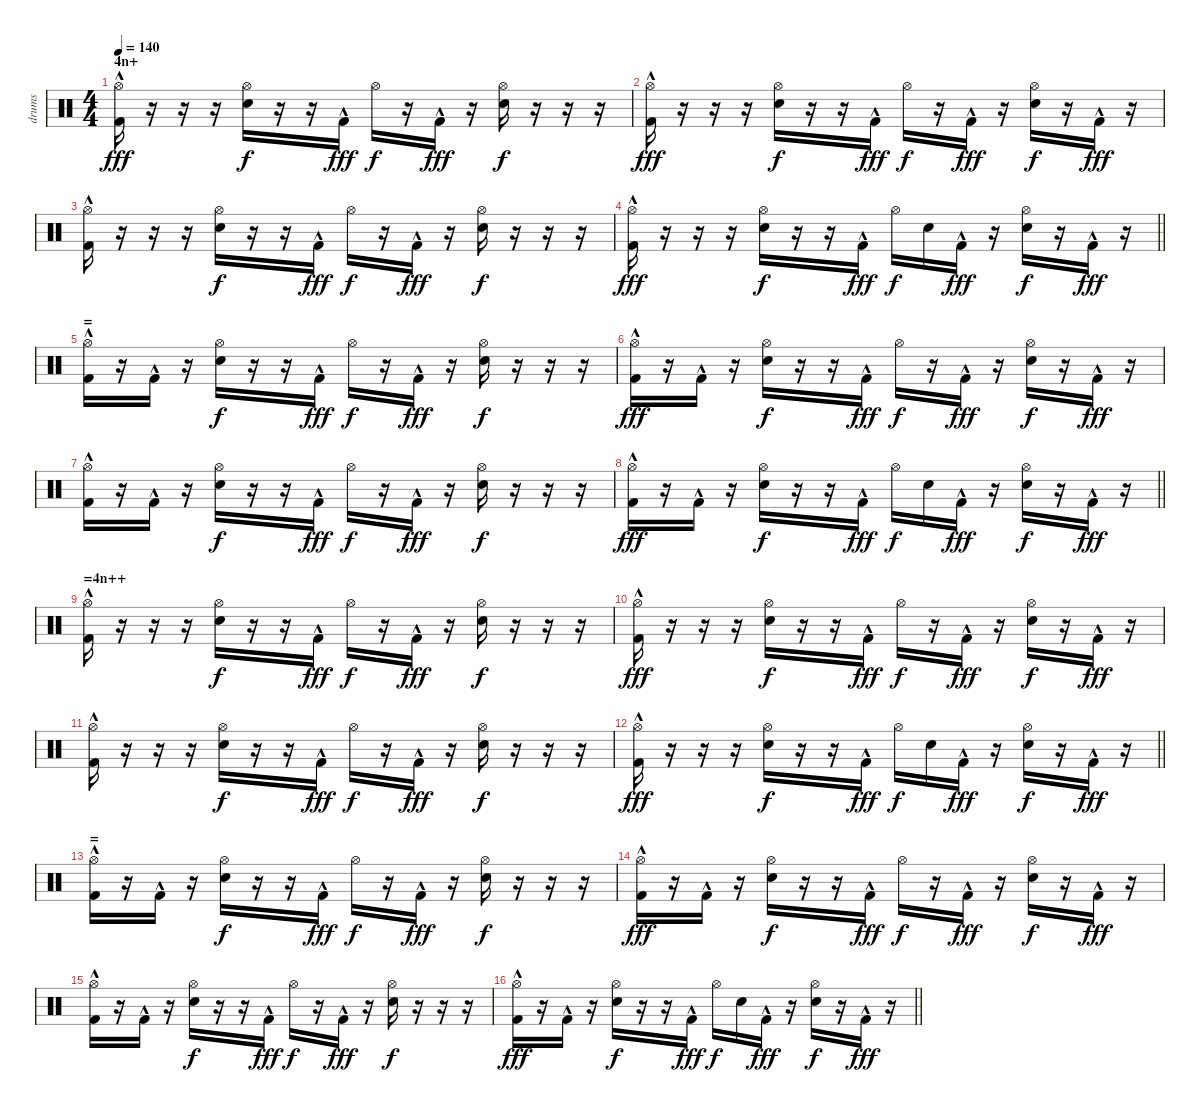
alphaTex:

\track ("drums" "drums") {instrument percussion}
\staff {score}
\articulation defaults
\ts (4 4)
\section ("" "4n+")
\tempo 140
\clef neutral
\ks c
("Kick (hit) 2"{hac} "Hi-Hat (open)").16{dy fff} r.16 r.16 r.16 ("Electric Snare (hit)" "Hi-Hat (open)").16{dy f} r.16 r.16 "Kick (hit) 2"{hac}.16{dy fff} "Hi-Hat (open)".16{dy f} r.16 "Kick (hit) 2"{hac}.16{dy fff} r.16 ("Electric Snare (hit)" "Hi-Hat (open)").16{dy f} r.16 r.16 r.16 |
("Kick (hit) 2"{hac} "Hi-Hat (open)").16{dy fff} r.16 r.16 r.16 ("Electric Snare (hit)" "Hi-Hat (open)").16{dy f} r.16 r.16 "Kick (hit) 2"{hac}.16{dy fff} "Hi-Hat (open)".16{dy f} r.16 "Kick (hit) 2"{hac}.16{dy fff} r.16 ("Electric Snare (hit)" "Hi-Hat (open)").16{dy f} r.16 "Kick (hit) 2"{hac}.16{dy fff} r.16 |
("Kick (hit) 2"{hac} "Hi-Hat (open)").16 r.16 r.16 r.16 ("Electric Snare (hit)" "Hi-Hat (open)").16{dy f} r.16 r.16 "Kick (hit) 2"{hac}.16{dy fff} "Hi-Hat (open)".16{dy f} r.16 "Kick (hit) 2"{hac}.16{dy fff} r.16 ("Electric Snare (hit)" "Hi-Hat (open)").16{dy f} r.16 r.16 r.16 |
\barLineRight lightlight
("Kick (hit) 2"{hac} "Hi-Hat (open)").16{dy fff} r.16 r.16 r.16 ("Electric Snare (hit)" "Hi-Hat (open)").16{dy f} r.16 r.16 "Kick (hit) 2"{hac}.16{dy fff} "Hi-Hat (open)".16{dy f} "Electric Snare (hit)".16 "Kick (hit) 2"{hac}.16{dy fff} r.16 ("Electric Snare (hit)" "Hi-Hat (open)").16{dy f} r.16 "Kick (hit) 2"{hac}.16{dy fff} r.16 |
\section ("" "=")
("Kick (hit) 2"{hac} "Hi-Hat (open)").16 r.16 "Kick (hit) 2"{hac}.16 r.16 ("Electric Snare (hit)" "Hi-Hat (open)").16{dy f} r.16 r.16 "Kick (hit) 2"{hac}.16{dy fff} "Hi-Hat (open)".16{dy f} r.16 "Kick (hit) 2"{hac}.16{dy fff} r.16 ("Electric Snare (hit)" "Hi-Hat (open)").16{dy f} r.16 r.16 r.16 |
("Kick (hit) 2"{hac} "Hi-Hat (open)").16{dy fff} r.16 "Kick (hit) 2"{hac}.16 r.16 ("Electric Snare (hit)" "Hi-Hat (open)").16{dy f} r.16 r.16 "Kick (hit) 2"{hac}.16{dy fff} "Hi-Hat (open)".16{dy f} r.16 "Kick (hit) 2"{hac}.16{dy fff} r.16 ("Electric Snare (hit)" "Hi-Hat (open)").16{dy f} r.16 "Kick (hit) 2"{hac}.16{dy fff} r.16 |
("Kick (hit) 2"{hac} "Hi-Hat (open)").16 r.16 "Kick (hit) 2"{hac}.16 r.16 ("Electric Snare (hit)" "Hi-Hat (open)").16{dy f} r.16 r.16 "Kick (hit) 2"{hac}.16{dy fff} "Hi-Hat (open)".16{dy f} r.16 "Kick (hit) 2"{hac}.16{dy fff} r.16 ("Electric Snare (hit)" "Hi-Hat (open)").16{dy f} r.16 r.16 r.16 |
\barLineRight lightlight
("Kick (hit) 2"{hac} "Hi-Hat (open)").16{dy fff} r.16 "Kick (hit) 2"{hac}.16 r.16 ("Electric Snare (hit)" "Hi-Hat (open)").16{dy f} r.16 r.16 "Kick (hit) 2"{hac}.16{dy fff} "Hi-Hat (open)".16{dy f} "Electric Snare (hit)".16 "Kick (hit) 2"{hac}.16{dy fff} r.16 ("Electric Snare (hit)" "Hi-Hat (open)").16{dy f} r.16 "Kick (hit) 2"{hac}.16{dy fff} r.16 |
\section ("" "=4n++")
("Kick (hit) 2"{hac} "Hi-Hat (open)").16 r.16 r.16 r.16 ("Electric Snare (hit)" "Hi-Hat (open)").16{dy f} r.16 r.16 "Kick (hit) 2"{hac}.16{dy fff} "Hi-Hat (open)".16{dy f} r.16 "Kick (hit) 2"{hac}.16{dy fff} r.16 ("Electric Snare (hit)" "Hi-Hat (open)").16{dy f} r.16 r.16 r.16 |
("Kick (hit) 2"{hac} "Hi-Hat (open)").16{dy fff} r.16 r.16 r.16 ("Electric Snare (hit)" "Hi-Hat (open)").16{dy f} r.16 r.16 "Kick (hit) 2"{hac}.16{dy fff} "Hi-Hat (open)".16{dy f} r.16 "Kick (hit) 2"{hac}.16{dy fff} r.16 ("Electric Snare (hit)" "Hi-Hat (open)").16{dy f} r.16 "Kick (hit) 2"{hac}.16{dy fff} r.16 |
("Kick (hit) 2"{hac} "Hi-Hat (open)").16 r.16 r.16 r.16 ("Electric Snare (hit)" "Hi-Hat (open)").16{dy f} r.16 r.16 "Kick (hit) 2"{hac}.16{dy fff} "Hi-Hat (open)".16{dy f} r.16 "Kick (hit) 2"{hac}.16{dy fff} r.16 ("Electric Snare (hit)" "Hi-Hat (open)").16{dy f} r.16 r.16 r.16 |
\barLineRight lightlight
("Kick (hit) 2"{hac} "Hi-Hat (open)").16{dy fff} r.16 r.16 r.16 ("Electric Snare (hit)" "Hi-Hat (open)").16{dy f} r.16 r.16 "Kick (hit) 2"{hac}.16{dy fff} "Hi-Hat (open)".16{dy f} "Electric Snare (hit)".16 "Kick (hit) 2"{hac}.16{dy fff} r.16 ("Electric Snare (hit)" "Hi-Hat (open)").16{dy f} r.16 "Kick (hit) 2"{hac}.16{dy fff} r.16 |
\section ("" "=")
("Kick (hit) 2"{hac} "Hi-Hat (open)").16 r.16 "Kick (hit) 2"{hac}.16 r.16 ("Electric Snare (hit)" "Hi-Hat (open)").16{dy f} r.16 r.16 "Kick (hit) 2"{hac}.16{dy fff} "Hi-Hat (open)".16{dy f} r.16 "Kick (hit) 2"{hac}.16{dy fff} r.16 ("Electric Snare (hit)" "Hi-Hat (open)").16{dy f} r.16 r.16 r.16 |
("Kick (hit) 2"{hac} "Hi-Hat (open)").16{dy fff} r.16 "Kick (hit) 2"{hac}.16 r.16 ("Electric Snare (hit)" "Hi-Hat (open)").16{dy f} r.16 r.16 "Kick (hit) 2"{hac}.16{dy fff} "Hi-Hat (open)".16{dy f} r.16 "Kick (hit) 2"{hac}.16{dy fff} r.16 ("Electric Snare (hit)" "Hi-Hat (open)").16{dy f} r.16 "Kick (hit) 2"{hac}.16{dy fff} r.16 |
("Kick (hit) 2"{hac} "Hi-Hat (open)").16 r.16 "Kick (hit) 2"{hac}.16 r.16 ("Electric Snare (hit)" "Hi-Hat (open)").16{dy f} r.16 r.16 "Kick (hit) 2"{hac}.16{dy fff} "Hi-Hat (open)".16{dy f} r.16 "Kick (hit) 2"{hac}.16{dy fff} r.16 ("Electric Snare (hit)" "Hi-Hat (open)").16{dy f} r.16 r.16 r.16 |
\barLineRight lightlight
("Kick (hit) 2"{hac} "Hi-Hat (open)").16{dy fff} r.16 "Kick (hit) 2"{hac}.16 r.16 ("Electric Snare (hit)" "Hi-Hat (open)").16{dy f} r.16 r.16 "Kick (hit) 2"{hac}.16{dy fff} "Hi-Hat (open)".16{dy f} "Electric Snare (hit)".16 "Kick (hit) 2"{hac}.16{dy fff} r.16 ("Electric Snare (hit)" "Hi-Hat (open)").16{dy f} r.16 "Kick (hit) 2"{hac}.16{dy fff} r.16
